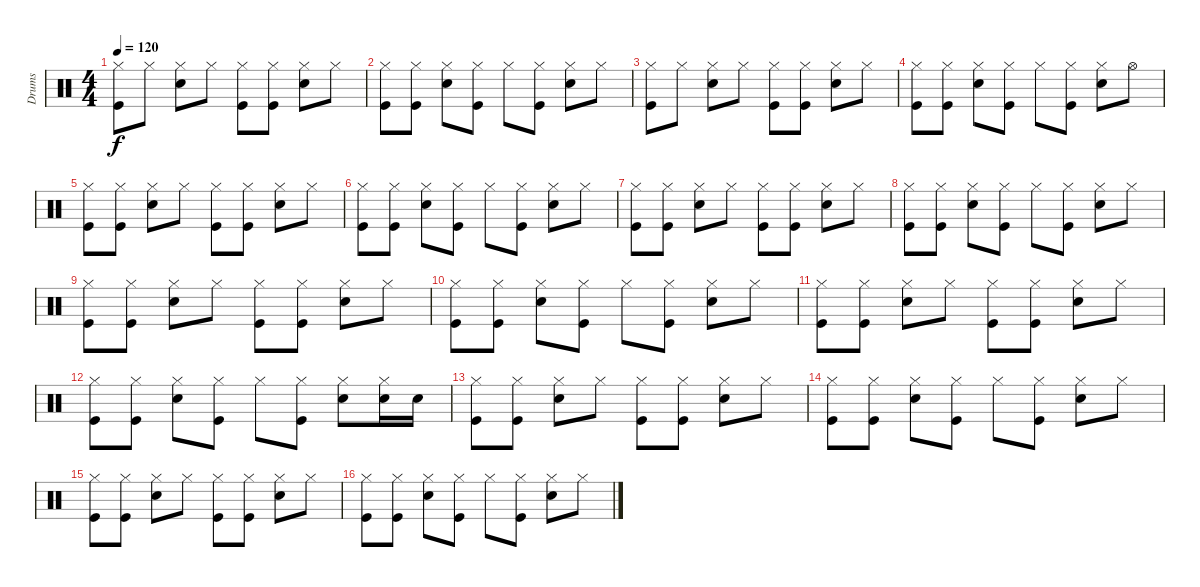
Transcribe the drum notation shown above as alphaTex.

\track ("Drums" "Drums") {instrument percussion}
\staff {score}
\articulation defaults
\ts (4 4)
\tempo 120
\clef neutral
\ks c
("Hi-Hat (closed)" "Kick (hit)").8{dy f} "Hi-Hat (closed)".8 ("Hi-Hat (closed)" "Snare (hit) 2").8 "Hi-Hat (closed)".8 ("Hi-Hat (closed)" "Kick (hit)").8 ("Hi-Hat (closed)" "Kick (hit)").8 ("Hi-Hat (closed)" "Snare (hit) 2").8 "Hi-Hat (closed)".8 |
("Hi-Hat (closed)" "Kick (hit)").8 ("Hi-Hat (closed)" "Kick (hit)").8 ("Hi-Hat (closed)" "Snare (hit) 2").8 ("Hi-Hat (closed)" "Kick (hit)").8 "Hi-Hat (closed)".8 ("Hi-Hat (closed)" "Kick (hit)").8 ("Hi-Hat (closed)" "Snare (hit) 2").8 "Hi-Hat (closed)".8 |
("Hi-Hat (closed)" "Kick (hit)").8 "Hi-Hat (closed)".8 ("Hi-Hat (closed)" "Snare (hit) 2").8 "Hi-Hat (closed)".8 ("Hi-Hat (closed)" "Kick (hit)").8 ("Hi-Hat (closed)" "Kick (hit)").8 ("Hi-Hat (closed)" "Snare (hit) 2").8 "Hi-Hat (closed)".8 |
("Hi-Hat (closed)" "Kick (hit)").8 ("Hi-Hat (closed)" "Kick (hit)").8 ("Hi-Hat (closed)" "Snare (hit) 2").8 ("Hi-Hat (closed)" "Kick (hit)").8 "Hi-Hat (closed)".8 ("Hi-Hat (closed)" "Kick (hit)").8 ("Hi-Hat (closed)" "Snare (hit) 2").8 "Hi-Hat (open)".8 |
("Hi-Hat (closed)" "Kick (hit)").8 ("Hi-Hat (closed)" "Kick (hit)").8 ("Hi-Hat (closed)" "Snare (hit) 2").8 "Hi-Hat (closed)".8 ("Hi-Hat (closed)" "Kick (hit)").8 ("Hi-Hat (closed)" "Kick (hit)").8 ("Hi-Hat (closed)" "Snare (hit) 2").8 "Hi-Hat (closed)".8 |
("Hi-Hat (closed)" "Kick (hit)").8 ("Hi-Hat (closed)" "Kick (hit)").8 ("Hi-Hat (closed)" "Snare (hit) 2").8 ("Hi-Hat (closed)" "Kick (hit)").8 "Hi-Hat (closed)".8 ("Hi-Hat (closed)" "Kick (hit)").8 ("Hi-Hat (closed)" "Snare (hit) 2").8 "Hi-Hat (closed)".8 |
("Hi-Hat (closed)" "Kick (hit)").8 ("Hi-Hat (closed)" "Kick (hit)").8 ("Hi-Hat (closed)" "Snare (hit) 2").8 "Hi-Hat (closed)".8 ("Hi-Hat (closed)" "Kick (hit)").8 ("Hi-Hat (closed)" "Kick (hit)").8 ("Hi-Hat (closed)" "Snare (hit) 2").8 "Hi-Hat (closed)".8 |
("Hi-Hat (closed)" "Kick (hit)").8 ("Hi-Hat (closed)" "Kick (hit)").8 ("Hi-Hat (closed)" "Snare (hit) 2").8 ("Hi-Hat (closed)" "Kick (hit)").8 "Hi-Hat (closed)".8 ("Hi-Hat (closed)" "Kick (hit)").8 ("Hi-Hat (closed)" "Snare (hit) 2").8 "Hi-Hat (closed)".8 |
("Hi-Hat (closed)" "Kick (hit)").8 ("Hi-Hat (closed)" "Kick (hit)").8 ("Hi-Hat (closed)" "Snare (hit) 2").8 "Hi-Hat (closed)".8 ("Hi-Hat (closed)" "Kick (hit)").8 ("Hi-Hat (closed)" "Kick (hit)").8 ("Hi-Hat (closed)" "Snare (hit) 2").8 "Hi-Hat (closed)".8 |
("Hi-Hat (closed)" "Kick (hit)").8 ("Hi-Hat (closed)" "Kick (hit)").8 ("Hi-Hat (closed)" "Snare (hit) 2").8 ("Hi-Hat (closed)" "Kick (hit)").8 "Hi-Hat (closed)".8 ("Hi-Hat (closed)" "Kick (hit)").8 ("Hi-Hat (closed)" "Snare (hit) 2").8 "Hi-Hat (closed)".8 |
("Hi-Hat (closed)" "Kick (hit)").8 ("Hi-Hat (closed)" "Kick (hit)").8 ("Hi-Hat (closed)" "Snare (hit) 2").8 "Hi-Hat (closed)".8 ("Hi-Hat (closed)" "Kick (hit)").8 ("Hi-Hat (closed)" "Kick (hit)").8 ("Hi-Hat (closed)" "Snare (hit) 2").8 "Hi-Hat (closed)".8 |
("Hi-Hat (closed)" "Kick (hit)").8 ("Hi-Hat (closed)" "Kick (hit)").8 ("Hi-Hat (closed)" "Snare (hit) 2").8 ("Hi-Hat (closed)" "Kick (hit)").8 "Hi-Hat (closed)".8 ("Hi-Hat (closed)" "Kick (hit)").8 ("Hi-Hat (closed)" "Snare (hit) 2").8 ("Hi-Hat (closed)" "Snare (hit) 2").16 "Snare (hit) 2".16 |
("Hi-Hat (closed)" "Kick (hit)").8 ("Hi-Hat (closed)" "Kick (hit)").8 ("Hi-Hat (closed)" "Snare (hit) 2").8 "Hi-Hat (closed)".8 ("Hi-Hat (closed)" "Kick (hit)").8 ("Hi-Hat (closed)" "Kick (hit)").8 ("Hi-Hat (closed)" "Snare (hit) 2").8 "Hi-Hat (closed)".8 |
("Hi-Hat (closed)" "Kick (hit)").8 ("Hi-Hat (closed)" "Kick (hit)").8 ("Hi-Hat (closed)" "Snare (hit) 2").8 ("Hi-Hat (closed)" "Kick (hit)").8 "Hi-Hat (closed)".8 ("Hi-Hat (closed)" "Kick (hit)").8 ("Hi-Hat (closed)" "Snare (hit) 2").8 "Hi-Hat (closed)".8 |
("Hi-Hat (closed)" "Kick (hit)").8 ("Hi-Hat (closed)" "Kick (hit)").8 ("Hi-Hat (closed)" "Snare (hit) 2").8 "Hi-Hat (closed)".8 ("Hi-Hat (closed)" "Kick (hit)").8 ("Hi-Hat (closed)" "Kick (hit)").8 ("Hi-Hat (closed)" "Snare (hit) 2").8 "Hi-Hat (closed)".8 |
("Hi-Hat (closed)" "Kick (hit)").8 ("Hi-Hat (closed)" "Kick (hit)").8 ("Hi-Hat (closed)" "Snare (hit) 2").8 ("Hi-Hat (closed)" "Kick (hit)").8 "Hi-Hat (closed)".8 ("Hi-Hat (closed)" "Kick (hit)").8 ("Hi-Hat (closed)" "Snare (hit) 2").8 "Hi-Hat (closed)".8
